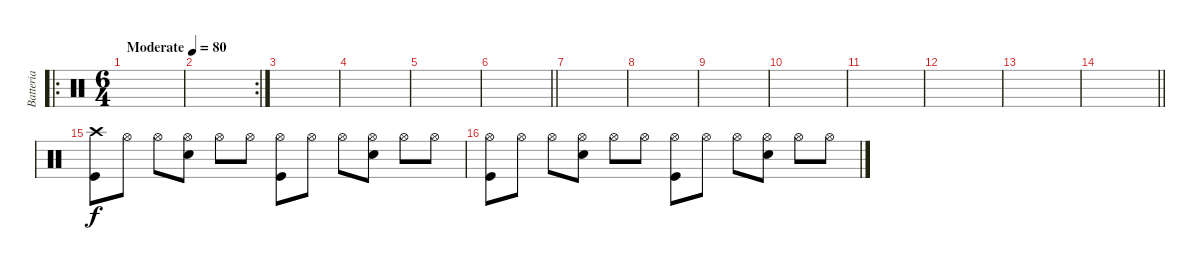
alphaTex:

\track ("Batteria" "Batteria") {instrument percussion}
\staff {score}
\articulation defaults
\ro
\ts (6 4)
\tempo (80 "Moderate")
\clef neutral
\ks c
|
\rc 2
|
|
|
|
\barLineRight lightlight
|
|
|
|
|
|
|
|
\barLineRight lightlight
|
("Kick (hit)" "Crash high (hit)").8 "Hi-Hat (open)".8 "Hi-Hat (open)".8 ("Snare (hit) 2" "Hi-Hat (open)").8 "Hi-Hat (open)".8 "Hi-Hat (open)".8 ("Kick (hit)" "Hi-Hat (open)").8 "Hi-Hat (open)".8 "Hi-Hat (open)".8 ("Snare (hit) 2" "Hi-Hat (open)").8 "Hi-Hat (open)".8 "Hi-Hat (open)".8 |
("Kick (hit)" "Hi-Hat (open)").8 "Hi-Hat (open)".8 "Hi-Hat (open)".8 ("Snare (hit) 2" "Hi-Hat (open)").8 "Hi-Hat (open)".8 "Hi-Hat (open)".8 ("Kick (hit)" "Hi-Hat (open)").8 "Hi-Hat (open)".8 "Hi-Hat (open)".8 ("Snare (hit) 2" "Hi-Hat (open)").8 "Hi-Hat (open)".8 "Hi-Hat (open)".8
